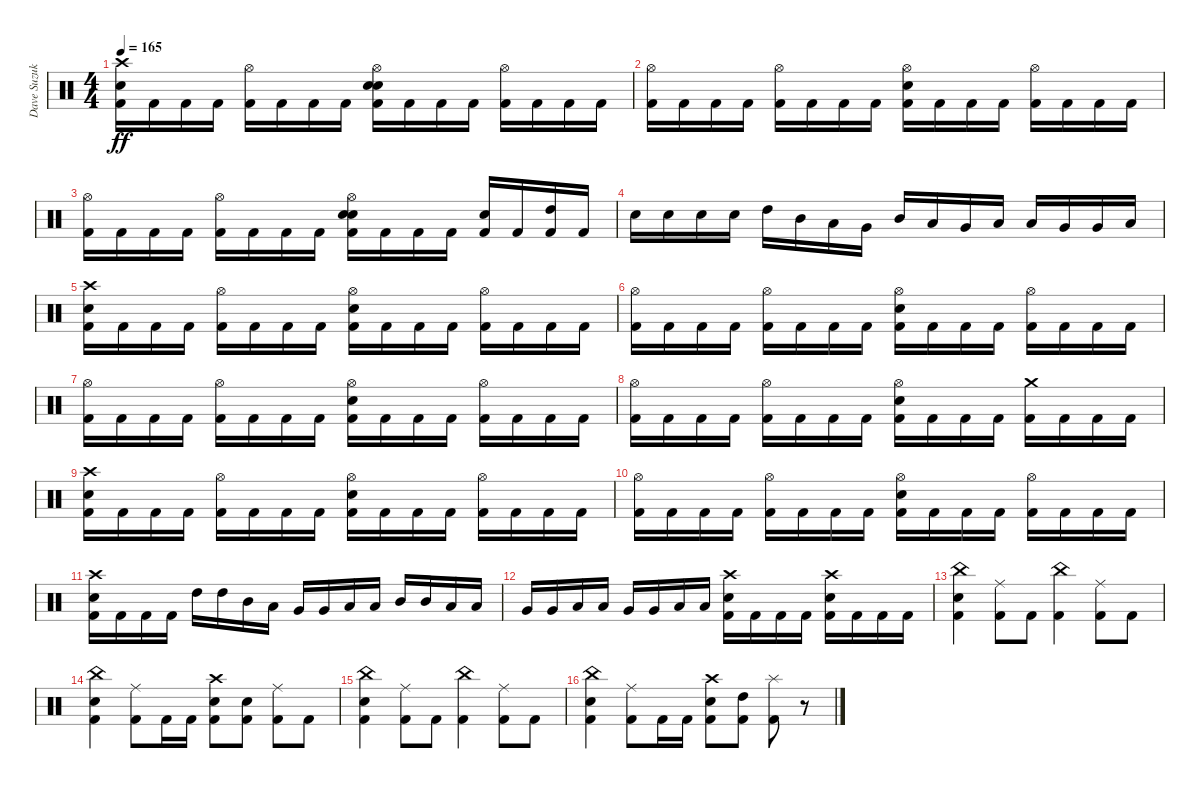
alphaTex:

\track ("Dave Suzuki - Drums" "Dave Suzuk") {instrument percussion}
\staff {score}
\articulation defaults
\ts (4 4)
\tempo 165
\clef neutral
\ks c
("Crash high (hit)" "Electric Snare (hit)" "Kick (hit) 2").16{dy ff} "Kick (hit) 2".16 "Kick (hit) 2".16 "Kick (hit) 2".16 ("Hi-Hat (open)" "Kick (hit) 2").16 "Kick (hit) 2".16 "Kick (hit) 2".16 "Kick (hit) 2".16 ("Hi-Hat (open)" "Electric Snare (hit)" "Electric Snare (hit)" "Kick (hit) 2").16 "Kick (hit) 2".16 "Kick (hit) 2".16 "Kick (hit) 2".16 ("Hi-Hat (open)" "Kick (hit) 2").16 "Kick (hit) 2".16 "Kick (hit) 2".16 "Kick (hit) 2".16 |
("Hi-Hat (open)" "Kick (hit) 2").16 "Kick (hit) 2".16 "Kick (hit) 2".16 "Kick (hit) 2".16 ("Hi-Hat (open)" "Kick (hit) 2").16 "Kick (hit) 2".16 "Kick (hit) 2".16 "Kick (hit) 2".16 ("Hi-Hat (open)" "Electric Snare (hit)" "Kick (hit) 2").16 "Kick (hit) 2".16 "Kick (hit) 2".16 "Kick (hit) 2".16 ("Hi-Hat (open)" "Kick (hit) 2").16 "Kick (hit) 2".16 "Kick (hit) 2".16 "Kick (hit) 2".16 |
("Hi-Hat (open)" "Kick (hit) 2").16 "Kick (hit) 2".16 "Kick (hit) 2".16 "Kick (hit) 2".16 ("Hi-Hat (open)" "Kick (hit) 2").16 "Kick (hit) 2".16 "Kick (hit) 2".16 "Kick (hit) 2".16 ("Hi-Hat (open)" "Electric Snare (hit)" "Electric Snare (hit)" "Kick (hit) 2").16 "Kick (hit) 2".16 "Kick (hit) 2".16 "Kick (hit) 2".16 ("Electric Snare (hit)" "Kick (hit) 2").16 "Kick (hit) 2".16 ("High Tom (hit)" "Kick (hit) 2").16 "Kick (hit) 2".16 |
"Electric Snare (hit)".16 "Electric Snare (hit)".16 "Electric Snare (hit)".16 "Electric Snare (hit)".16 "High Tom (hit)".16 "Mid Tom (hit)".16 "Low Tom (hit)".16 "Very Low Tom (hit)".16 "Mid Tom (hit)".16 "Low Tom (hit)".16 "Very Low Tom (hit)".16 "Low Floor Tom (hit)".16 "Low Tom (hit)".16 "Very Low Tom (hit)".16 "Very Low Tom (hit)".16 "Low Floor Tom (hit)".16 |
("Crash high (hit)" "Electric Snare (hit)" "Kick (hit) 2").16 "Kick (hit) 2".16 "Kick (hit) 2".16 "Kick (hit) 2".16 ("Hi-Hat (open)" "Kick (hit) 2").16 "Kick (hit) 2".16 "Kick (hit) 2".16 "Kick (hit) 2".16 ("Hi-Hat (open)" "Electric Snare (hit)" "Kick (hit) 2").16 "Kick (hit) 2".16 "Kick (hit) 2".16 "Kick (hit) 2".16 ("Hi-Hat (open)" "Kick (hit) 2").16 "Kick (hit) 2".16 "Kick (hit) 2".16 "Kick (hit) 2".16 |
("Hi-Hat (open)" "Kick (hit) 2").16 "Kick (hit) 2".16 "Kick (hit) 2".16 "Kick (hit) 2".16 ("Hi-Hat (open)" "Kick (hit) 2").16 "Kick (hit) 2".16 "Kick (hit) 2".16 "Kick (hit) 2".16 ("Hi-Hat (open)" "Electric Snare (hit)" "Kick (hit) 2").16 "Kick (hit) 2".16 "Kick (hit) 2".16 "Kick (hit) 2".16 ("Hi-Hat (open)" "Kick (hit) 2").16 "Kick (hit) 2".16 "Kick (hit) 2".16 "Kick (hit) 2".16 |
("Hi-Hat (open)" "Kick (hit) 2").16 "Kick (hit) 2".16 "Kick (hit) 2".16 "Kick (hit) 2".16 ("Hi-Hat (open)" "Kick (hit) 2").16 "Kick (hit) 2".16 "Kick (hit) 2".16 "Kick (hit) 2".16 ("Hi-Hat (open)" "Electric Snare (hit)" "Kick (hit) 2").16 "Kick (hit) 2".16 "Kick (hit) 2".16 "Kick (hit) 2".16 ("Hi-Hat (open)" "Kick (hit) 2").16 "Kick (hit) 2".16 "Kick (hit) 2".16 "Kick (hit) 2".16 |
("Hi-Hat (open)" "Kick (hit) 2").16 "Kick (hit) 2".16 "Kick (hit) 2".16 "Kick (hit) 2".16 ("Hi-Hat (open)" "Kick (hit) 2").16 "Kick (hit) 2".16 "Kick (hit) 2".16 "Kick (hit) 2".16 ("Hi-Hat (open)" "Electric Snare (hit)" "Kick (hit) 2").16 "Kick (hit) 2".16 "Kick (hit) 2".16 "Kick (hit) 2".16 ("Crash medium (hit)" "Kick (hit) 2").16 "Kick (hit) 2".16 "Kick (hit) 2".16 "Kick (hit) 2".16 |
("Crash high (hit)" "Electric Snare (hit)" "Kick (hit) 2").16 "Kick (hit) 2".16 "Kick (hit) 2".16 "Kick (hit) 2".16 ("Hi-Hat (open)" "Kick (hit) 2").16 "Kick (hit) 2".16 "Kick (hit) 2".16 "Kick (hit) 2".16 ("Hi-Hat (open)" "Electric Snare (hit)" "Kick (hit) 2").16 "Kick (hit) 2".16 "Kick (hit) 2".16 "Kick (hit) 2".16 ("Hi-Hat (open)" "Kick (hit) 2").16 "Kick (hit) 2".16 "Kick (hit) 2".16 "Kick (hit) 2".16 |
("Hi-Hat (open)" "Kick (hit) 2").16 "Kick (hit) 2".16 "Kick (hit) 2".16 "Kick (hit) 2".16 ("Hi-Hat (open)" "Kick (hit) 2").16 "Kick (hit) 2".16 "Kick (hit) 2".16 "Kick (hit) 2".16 ("Hi-Hat (open)" "Electric Snare (hit)" "Kick (hit) 2").16 "Kick (hit) 2".16 "Kick (hit) 2".16 "Kick (hit) 2".16 ("Hi-Hat (open)" "Kick (hit) 2").16 "Kick (hit) 2".16 "Kick (hit) 2".16 "Kick (hit) 2".16 |
("Crash high (hit)" "Electric Snare (hit)" "Kick (hit) 2").16 "Kick (hit) 2".16 "Kick (hit) 2".16 "Kick (hit) 2".16 "High Tom (hit)".16 "High Tom (hit)".16 "Mid Tom (hit)".16 "Low Tom (hit)".16 "Very Low Tom (hit)".16 "Very Low Tom (hit)".16 "Low Floor Tom (hit)".16 "Low Floor Tom (hit)".16 "Mid Tom (hit)".16 "Mid Tom (hit)".16 "Low Tom (hit)".16 "Low Tom (hit)".16 |
"Very Low Tom (hit)".16 "Very Low Tom (hit)".16 "Low Floor Tom (hit)".16 "Low Floor Tom (hit)".16 "Very Low Tom (hit)".16 "Very Low Tom (hit)".16 "Low Floor Tom (hit)".16 "Low Floor Tom (hit)".16 ("Crash high (hit)" "Electric Snare (hit)" "Kick (hit) 2").16 "Kick (hit) 2".16 "Kick (hit) 2".16 "Kick (hit) 2".16 ("Crash high (hit)" "Electric Snare (hit)" "Kick (hit) 2").16 "Kick (hit) 2".16 "Kick (hit) 2".16 "Kick (hit) 2".16 |
("China (hit)" "Electric Snare (hit)" "Kick (hit) 2").4 ("Ride (middle)" "Kick (hit) 2").8 "Kick (hit) 2".8 ("China (hit)" "Kick (hit) 2").4 ("Ride (middle)" "Kick (hit) 2").8 "Kick (hit) 2".8 |
("China (hit)" "Electric Snare (hit)" "Kick (hit) 2").4 ("Ride (middle)" "Kick (hit) 2").8 "Kick (hit) 2".16 "Kick (hit) 2".16 ("Crash high (hit)" "Electric Snare (hit)" "Kick (hit) 2").8 ("Electric Snare (hit)" "Kick (hit) 2").8 ("Ride (middle)" "Kick (hit) 2").8 "Kick (hit) 2".8 |
("China (hit)" "Electric Snare (hit)" "Kick (hit) 2").4 ("Ride (middle)" "Kick (hit) 2").8 "Kick (hit) 2".8 ("China (hit)" "Kick (hit) 2").4 ("Ride (middle)" "Kick (hit) 2").8 "Kick (hit) 2".8 |
("China (hit)" "Electric Snare (hit)" "Kick (hit) 2").4 ("Ride (middle)" "Kick (hit) 2").8 "Kick (hit) 2".16 "Kick (hit) 2".16 ("Crash high (hit)" "Electric Snare (hit)" "Kick (hit) 2").8 ("High Tom (hit)" "Kick (hit) 2").8 ("Splash (hit)" "Kick (hit) 2").8 r.8
